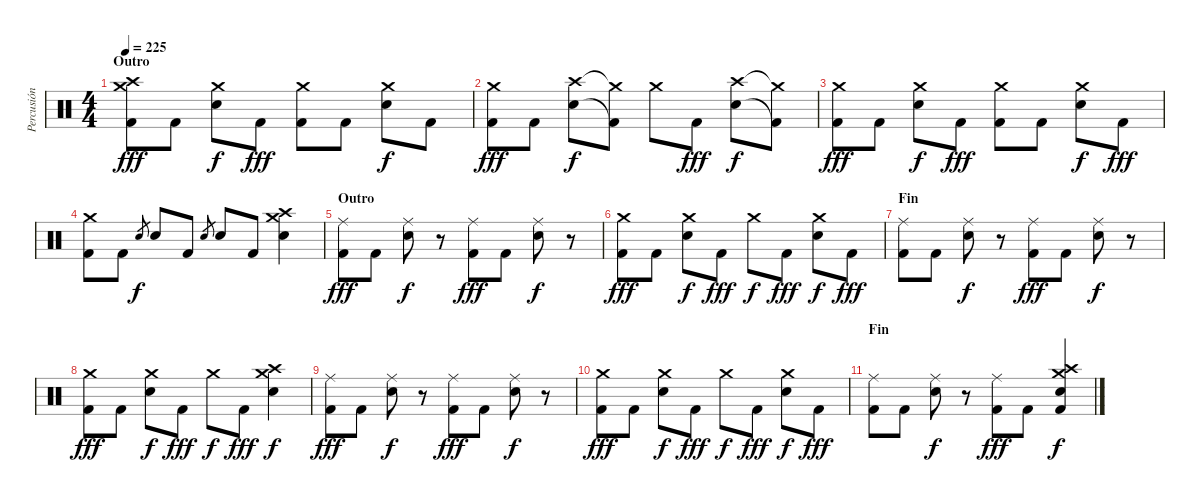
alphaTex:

\track ("Percusión" "Percusión") {instrument percussion}
\staff {score}
\articulation defaults
\ts (4 4)
\section ("" "Outro")
\tempo 225
\clef neutral
\ks c
("Kick (hit) 2" "Crash medium (hit)" "Crash high (hit)").8{dy fff} "Kick (hit) 2".8 ("Electric Snare (hit)" "Crash medium (hit)").8{dy f} "Kick (hit) 2".8{dy fff} ("Kick (hit) 2" "Crash medium (hit)").8 "Kick (hit) 2".8 ("Electric Snare (hit)" "Crash medium (hit)").8{dy f} "Kick (hit) 2".8 |
("Kick (hit) 2" "Crash medium (hit)").8{dy fff} "Kick (hit) 2".8 ("Electric Snare (hit)" "Crash high (hit)").8{dy f} ("Kick (hit) 2"{t} "Crash medium (hit)"{t}).8 "Crash medium (hit)".8 "Kick (hit) 2".8{dy fff} ("Electric Snare (hit)" "Crash high (hit)").8{dy f} ("Kick (hit) 2"{t} "Crash medium (hit)"{t}).8 |
("Kick (hit) 2" "Crash medium (hit)").8{dy fff} "Kick (hit) 2".8 ("Electric Snare (hit)" "Crash medium (hit)").8{dy f} "Kick (hit) 2".8{dy fff} ("Kick (hit) 2" "Crash medium (hit)").8 "Kick (hit) 2".8 ("Electric Snare (hit)" "Crash medium (hit)").8{dy f} "Kick (hit) 2".8{dy fff} |
("Kick (hit) 2" "Crash medium (hit)").8 "Kick (hit) 2".8 "Electric Snare (hit)".8{gr dy f} "Electric Snare (hit)".8 "Kick (hit) 2".8 "Electric Snare (hit)".8{gr} "Electric Snare (hit)".8 "Kick (hit) 2".8 ("Electric Snare (hit)" "Crash high (hit)" "Crash medium (hit)").4 |
\section ("" "Outro")
("Kick (hit) 2" "Ride (middle)").8{dy fff} "Kick (hit) 2".8 ("Electric Snare (hit)" "Ride (middle)").8{dy f} r.8 ("Kick (hit) 2" "Ride (middle)").8{dy fff} "Kick (hit) 2".8 ("Electric Snare (hit)" "Ride (middle)").8{dy f} r.8 |
("Kick (hit) 2" "Crash medium (hit)").8{dy fff} "Kick (hit) 2".8 ("Electric Snare (hit)" "Crash medium (hit)").8{dy f} "Kick (hit) 2".8{dy fff} "Crash medium (hit)".8{dy f} "Kick (hit) 2".8{dy fff} ("Electric Snare (hit)" "Crash medium (hit)").8{dy f} "Kick (hit) 2".8{dy fff} |
\section ("" "Fin")
("Kick (hit) 2" "Ride (middle)").8 "Kick (hit) 2".8 ("Electric Snare (hit)" "Ride (middle)").8{dy f} r.8 ("Kick (hit) 2" "Ride (middle)").8{dy fff} "Kick (hit) 2".8 ("Electric Snare (hit)" "Ride (middle)").8{dy f} r.8 |
("Kick (hit) 2" "Crash medium (hit)").8{dy fff} "Kick (hit) 2".8 ("Electric Snare (hit)" "Crash medium (hit)").8{dy f} "Kick (hit) 2".8{dy fff} "Crash medium (hit)".8{dy f} "Kick (hit) 2".8{dy fff} ("Electric Snare (hit)" "Crash medium (hit)" "Crash high (hit)").4{dy f} |
("Kick (hit) 2" "Ride (middle)").8{dy fff} "Kick (hit) 2".8 ("Electric Snare (hit)" "Ride (middle)").8{dy f} r.8 ("Kick (hit) 2" "Ride (middle)").8{dy fff} "Kick (hit) 2".8 ("Electric Snare (hit)" "Ride (middle)").8{dy f} r.8 |
("Kick (hit) 2" "Crash medium (hit)").8{dy fff} "Kick (hit) 2".8 ("Electric Snare (hit)" "Crash medium (hit)").8{dy f} "Kick (hit) 2".8{dy fff} "Crash medium (hit)".8{dy f} "Kick (hit) 2".8{dy fff} ("Electric Snare (hit)" "Crash medium (hit)").8{dy f} "Kick (hit) 2".8{dy fff} |
\section ("" "Fin")
("Kick (hit) 2" "Ride (middle)").8 "Kick (hit) 2".8 ("Electric Snare (hit)" "Ride (middle)").8{dy f} r.8 ("Kick (hit) 2" "Ride (middle)").8{dy fff} "Kick (hit) 2".8 ("Crash high (hit)" "Electric Snare (hit)" "Kick (hit) 2" "Crash medium (hit)").4{dy f}
